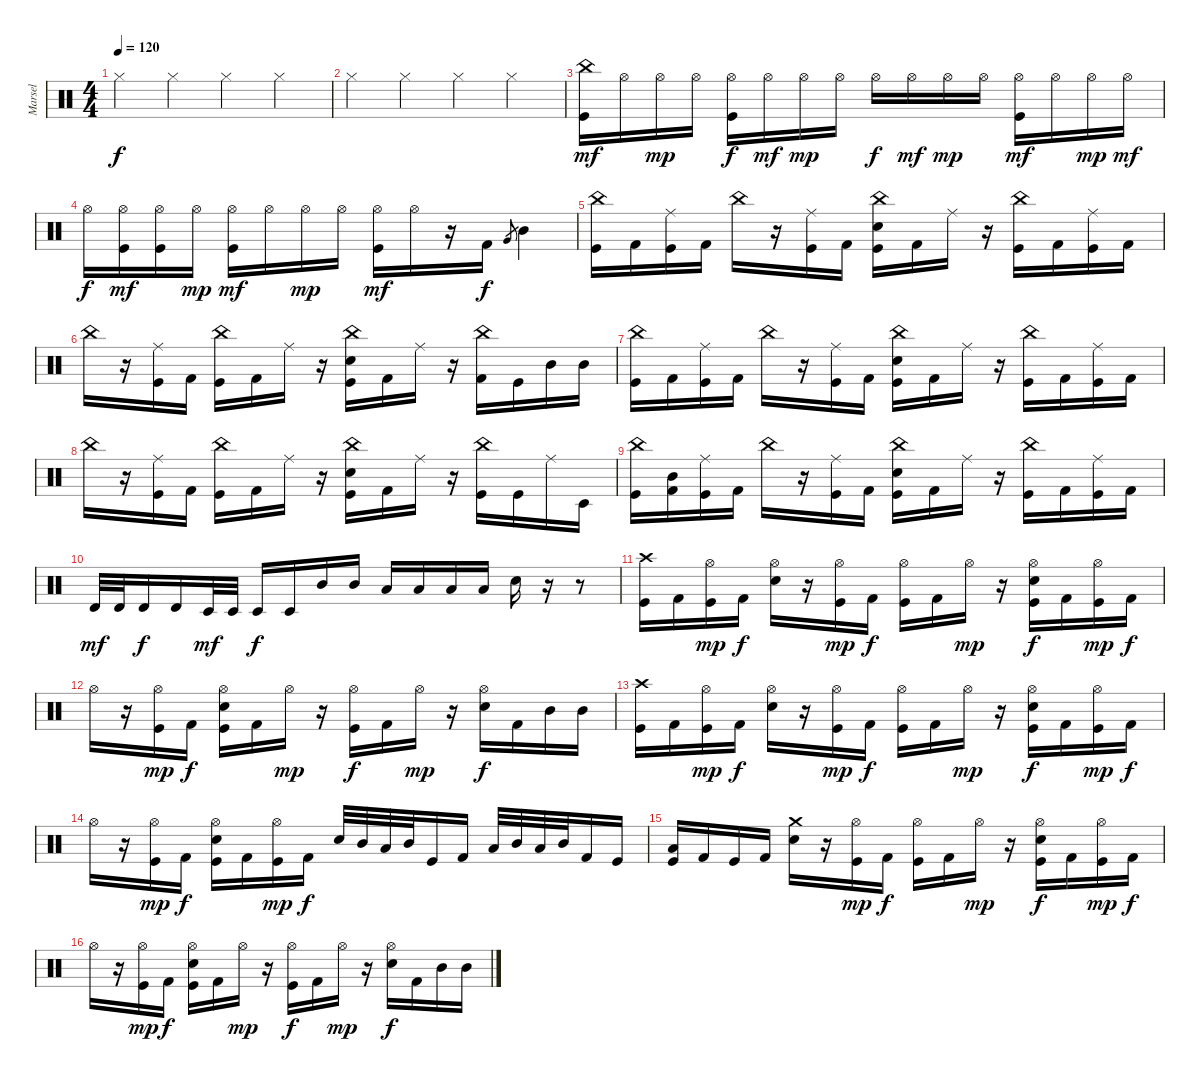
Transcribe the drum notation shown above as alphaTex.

\track ("Marsel" "Marsel") {instrument percussion}
\staff {score}
\articulation defaults
\ts (4 4)
\tempo 120
\clef neutral
\ks c "Hi-Hat (closed)".4{dy f} "Hi-Hat (closed)".4 "Hi-Hat (closed)".4 "Hi-Hat (closed)".4
|
"Hi-Hat (closed)".4 "Hi-Hat (closed)".4 "Hi-Hat (closed)".4 "Hi-Hat (closed)".4 |
("China (hit)" "Kick (hit)").16{dy mf} "Hi-Hat (open)".16 "Hi-Hat (open)".16{dy mp} "Hi-Hat (open)".16 ("Hi-Hat (open)" "Kick (hit)").16{dy f} "Hi-Hat (open)".16{dy mf} "Hi-Hat (open)".16{dy mp} "Hi-Hat (open)".16 "Hi-Hat (open)".16{dy f} "Hi-Hat (open)".16{dy mf} "Hi-Hat (open)".16{dy mp} "Hi-Hat (open)".16 ("Hi-Hat (open)" "Kick (hit)").16{dy mf} "Hi-Hat (open)".16 "Hi-Hat (open)".16{dy mp} "Hi-Hat (open)".16{dy mf} |
"Hi-Hat (open)".16{dy f} ("Hi-Hat (open)" "Kick (hit)").16{dy mf} ("Hi-Hat (open)" "Kick (hit)").16 "Hi-Hat (open)".16{dy mp} ("Hi-Hat (open)" "Kick (hit)").16{dy mf} "Hi-Hat (open)".16 "Hi-Hat (open)".16{dy mp} "Hi-Hat (open)".16 ("Hi-Hat (open)" "Kick (hit)").16{dy mf} "Hi-Hat (open)".16 r.16 "Kick (hit) 2".16{dy f} "Very Low Tom (hit)".8{gr} "Mid Tom (hit)".4 |
("China (hit)" "Kick (hit)").16 "Kick (hit) 2".16 ("Ride (middle)" "Kick (hit)").16 "Kick (hit) 2".16 "China (hit)".16 r.16 ("Ride (middle)" "Kick (hit)").16 "Kick (hit) 2".16 ("China (hit)" "Snare (hit) 2" "Kick (hit)").16 "Kick (hit) 2".16 "Ride (middle)".16 r.16 ("China (hit)" "Kick (hit)").16 "Kick (hit) 2".16 ("Ride (middle)" "Kick (hit)").16 "Kick (hit) 2".16 |
"China (hit)".16 r.16 ("Ride (middle)" "Kick (hit)").16 "Kick (hit) 2".16 ("China (hit)" "Kick (hit)").16 "Kick (hit) 2".16 "Ride (middle)".16 r.16 ("China (hit)" "Snare (hit) 2" "Kick (hit)").16 "Kick (hit) 2".16 "Ride (middle)".16 r.16 ("China (hit)" "Kick (hit) 2").16 "Kick (hit)".16 "Mid Tom (hit)".16 "Mid Tom (hit)".16 |
("China (hit)" "Kick (hit)").16 "Kick (hit) 2".16 ("Ride (middle)" "Kick (hit)").16 "Kick (hit) 2".16 "China (hit)".16 r.16 ("Ride (middle)" "Kick (hit)").16 "Kick (hit) 2".16 ("China (hit)" "Snare (hit) 2" "Kick (hit)").16 "Kick (hit) 2".16 "Ride (middle)".16 r.16 ("China (hit)" "Kick (hit)").16 "Kick (hit) 2".16 ("Ride (middle)" "Kick (hit)").16 "Kick (hit) 2".16 |
"China (hit)".16 r.16 ("Ride (middle)" "Kick (hit)").16 "Kick (hit) 2".16 ("China (hit)" "Kick (hit)").16 "Kick (hit) 2".16 "Ride (middle)".16 r.16 ("China (hit)" "Snare (hit) 2" "Kick (hit)").16 "Kick (hit) 2".16 "Ride (middle)".16 r.16 ("China (hit)" "Kick (hit)").16 "Kick (hit)".16 "Ride (middle)".16 "Timbale low (hit)".16 |
("China (hit)" "Kick (hit)").16 ("Mid Tom (hit)" "Kick (hit) 2").16 ("Ride (middle)" "Kick (hit)").16 "Kick (hit) 2".16 "China (hit)".16 r.16 ("Ride (middle)" "Kick (hit)").16 "Kick (hit) 2".16 ("China (hit)" "Snare (hit) 2" "Kick (hit)").16 "Kick (hit) 2".16 "Ride (middle)".16 r.16 ("China (hit)" "Kick (hit)").16 "Kick (hit) 2".16 ("Ride (middle)" "Kick (hit)").16 "Kick (hit) 2".16 |
"Timbale high (hit)".32{dy mf} "Timbale high (hit)".32 "Timbale high (hit)".16{dy f} "Timbale high (hit)".16 "Timbale low (hit)".32{dy mf} "Timbale low (hit)".32 "Timbale low (hit)".16{dy f} "Timbale low (hit)".16 "Mid Tom (hit)".16 "Mid Tom (hit)".16 "Low Tom (hit)".16 "Low Tom (hit)".16 "Low Floor Tom (hit)".16 "Low Floor Tom (hit)".16 "Snare (hit) 2".16 r.16 r.8 |
("Crash high (hit)" "Kick (hit)").16 "Kick (hit) 2".16 ("Hi-Hat (open)" "Kick (hit)").16{dy mp} "Kick (hit) 2".16{dy f} ("Hi-Hat (open)" "Snare (hit) 2").16 r.16 ("Hi-Hat (open)" "Kick (hit)").16{dy mp} "Kick (hit) 2".16{dy f} ("Hi-Hat (open)" "Kick (hit)").16 "Kick (hit) 2".16 "Hi-Hat (open)".16{dy mp} r.16 ("Hi-Hat (open)" "Snare (hit) 2" "Kick (hit)").16{dy f} "Kick (hit) 2".16 ("Hi-Hat (open)" "Kick (hit)").16{dy mp} "Kick (hit) 2".16{dy f} |
"Hi-Hat (open)".16 r.16 ("Hi-Hat (open)" "Kick (hit)").16{dy mp} "Kick (hit) 2".16{dy f} ("Hi-Hat (open)" "Snare (hit) 2" "Kick (hit)").16 "Kick (hit) 2".16 "Hi-Hat (open)".16{dy mp} r.16 ("Hi-Hat (open)" "Kick (hit)").16{dy f} "Kick (hit) 2".16 "Hi-Hat (open)".16{dy mp} r.16 ("Hi-Hat (open)" "Snare (hit) 2").16{dy f} "Kick (hit) 2".16 "Mid Tom (hit)".16 "Mid Tom (hit)".16 |
("Crash high (hit)" "Kick (hit)").16 "Kick (hit) 2".16 ("Hi-Hat (open)" "Kick (hit)").16{dy mp} "Kick (hit) 2".16{dy f} ("Hi-Hat (open)" "Snare (hit) 2").16 r.16 ("Hi-Hat (open)" "Kick (hit)").16{dy mp} "Kick (hit) 2".16{dy f} ("Hi-Hat (open)" "Kick (hit)").16 "Kick (hit) 2".16 "Hi-Hat (open)".16{dy mp} r.16 ("Hi-Hat (open)" "Snare (hit) 2" "Kick (hit)").16{dy f} "Kick (hit) 2".16 ("Hi-Hat (open)" "Kick (hit)").16{dy mp} "Kick (hit) 2".16{dy f} |
"Hi-Hat (open)".16 r.16 ("Hi-Hat (open)" "Kick (hit)").16{dy mp} "Kick (hit) 2".16{dy f} ("Hi-Hat (open)" "Snare (hit) 2" "Kick (hit)").16 "Kick (hit) 2".16 ("Hi-Hat (open)" "Kick (hit)").16{dy mp} "Kick (hit) 2".16{dy f} "Snare (hit) 2".32 "Mid Tom (hit)".32 "Low Tom (hit)".32 "Mid Tom (hit)".32 "Kick (hit)".16 "Kick (hit) 2".16 "Low Tom (hit)".32 "Mid Tom (hit)".32 "Low Floor Tom (hit)".32 "Mid Tom (hit)".32 "Kick (hit) 2".16 "Kick (hit)".16 |
("Low Tom (hit)" "Kick (hit)").16 "Kick (hit) 2".16 "Kick (hit)".16 "Kick (hit) 2".16 ("Crash medium (hit)" "Snare (hit) 2").16 r.16 ("Hi-Hat (open)" "Kick (hit)").16{dy mp} "Kick (hit) 2".16{dy f} ("Hi-Hat (open)" "Kick (hit)").16 "Kick (hit) 2".16 "Hi-Hat (open)".16{dy mp} r.16 ("Hi-Hat (open)" "Snare (hit) 2" "Kick (hit)").16{dy f} "Kick (hit) 2".16 ("Hi-Hat (open)" "Kick (hit)").16{dy mp} "Kick (hit) 2".16{dy f} |
"Hi-Hat (open)".16 r.16 ("Hi-Hat (open)" "Kick (hit)").16{dy mp} "Kick (hit) 2".16{dy f} ("Hi-Hat (open)" "Snare (hit) 2" "Kick (hit)").16 "Kick (hit) 2".16 "Hi-Hat (open)".16{dy mp} r.16 ("Hi-Hat (open)" "Kick (hit)").16{dy f} "Kick (hit) 2".16 "Hi-Hat (open)".16{dy mp} r.16 ("Hi-Hat (open)" "Snare (hit) 2").16{dy f} "Kick (hit) 2".16 "Mid Tom (hit)".16 "Mid Tom (hit)".16
